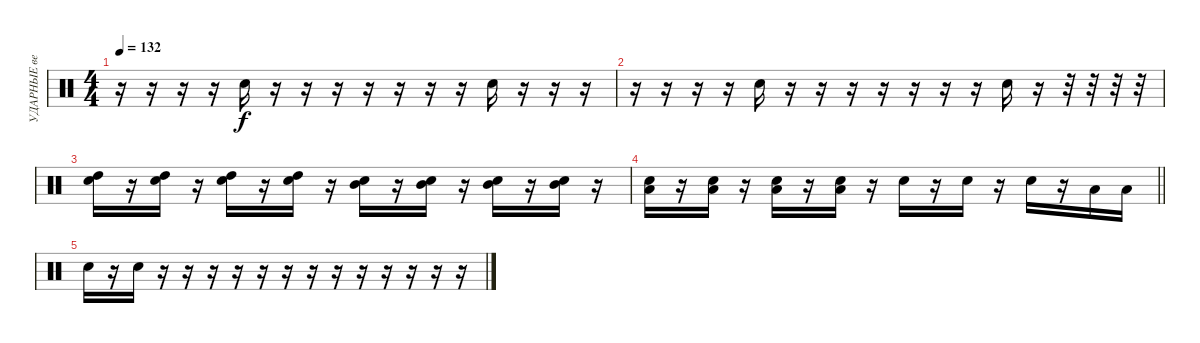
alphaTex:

\track ("УДАРНЫЕ ведущий" "УДАРНЫЕ ве") {instrument percussion}
\staff {score}
\articulation defaults
\ts (4 4)
\tempo 132
\clef neutral
\ks c
r.16{dy f} r.16 r.16 r.16 "Snare (hit) 2".16 r.16 r.16 r.16 r.16 r.16 r.16 r.16 "Snare (hit) 2".16 r.16 r.16 r.16 |
r.16 r.16 r.16 r.16 "Snare (hit) 2".16 r.16 r.16 r.16 r.16 r.16 r.16 r.16 "Snare (hit) 2".16 r.16 r.32 r.32 r.32 r.32 |
("High Tom (hit)" "Snare (hit) 2").16 r.16 ("High Tom (hit)" "Snare (hit) 2").16 r.16 ("High Tom (hit)" "Snare (hit) 2").16 r.16 ("High Tom (hit)" "Snare (hit) 2").16 r.16 ("Mid Tom (hit)" "Snare (hit) 2").16 r.16 ("Mid Tom (hit)" "Snare (hit) 2").16 r.16 ("Mid Tom (hit)" "Snare (hit) 2").16 r.16 ("Mid Tom (hit)" "Snare (hit) 2").16 r.16 |
\barLineRight lightlight
("Low Tom (hit)" "Snare (hit) 2").16 r.16 ("Low Tom (hit)" "Snare (hit) 2").16 r.16 ("Low Tom (hit)" "Snare (hit) 2").16 r.16 ("Low Tom (hit)" "Snare (hit) 2").16 r.16 "Snare (hit) 2".16 r.16 "Snare (hit) 2".16 r.16 "Snare (hit) 2".16 r.16 "Low Tom (hit)".16 "Low Tom (hit)".16 |
"Snare (hit) 2".16 r.16 "Snare (hit) 2".16 r.16 r.16 r.16 r.16 r.16 r.16 r.16 r.16 r.16 r.16 r.16 r.16 r.16
